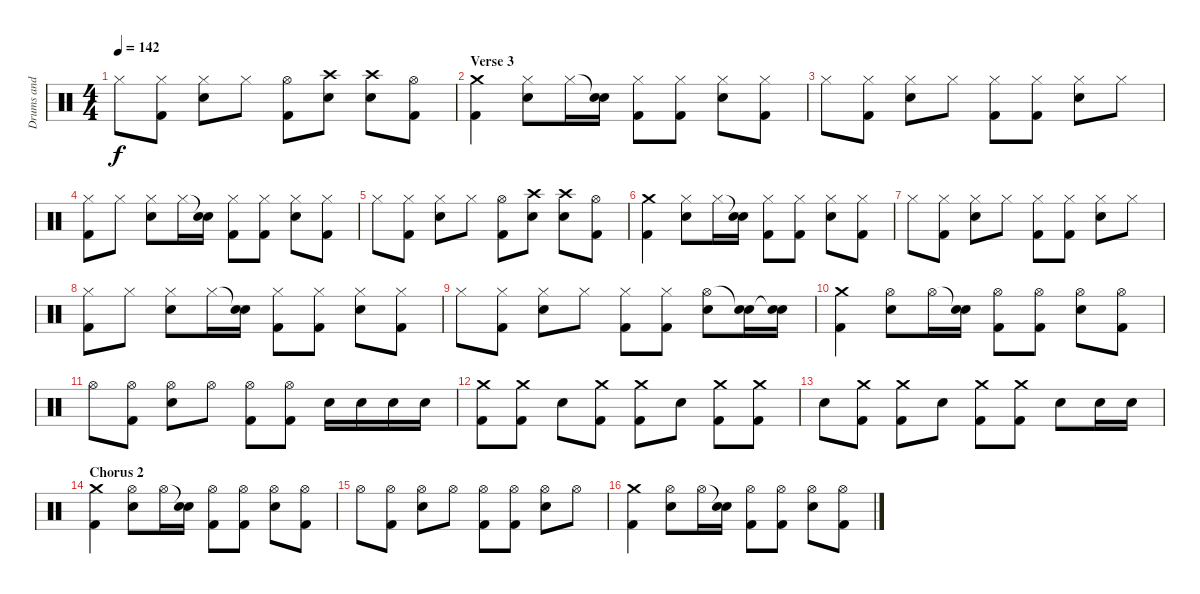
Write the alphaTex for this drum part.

\track ("Drums and Percussion" "Drums and ") {instrument percussion}
\staff {score}
\articulation defaults
\ts (4 4)
\tempo 142
\clef neutral
\ks c "Hi-Hat (closed)".8{dy f}
("Hi-Hat (closed)" "Kick (hit) 2").8 ("Hi-Hat (closed)" "Electric Snare (hit)").8 "Hi-Hat (closed)".8 ("Hi-Hat (open)" "Kick (hit) 2").8 ("Crash high (hit)" "Electric Snare (hit)").8 ("Crash high (hit)" "Electric Snare (hit)").8 ("Hi-Hat (open)" "Kick (hit) 2").8 |
\section ("" "Verse 3")
("Crash medium (hit)" "Kick (hit) 2").4 ("Hi-Hat (closed)" "Electric Snare (hit)").8 "Hi-Hat (closed)".16 ("Snare (hit)"{t} "Electric Snare (hit)").16 ("Hi-Hat (closed)" "Kick (hit) 2").8 ("Hi-Hat (closed)" "Kick (hit) 2").8 ("Hi-Hat (closed)" "Electric Snare (hit)").8 ("Hi-Hat (closed)" "Kick (hit) 2").8 |
"Hi-Hat (closed)".8 ("Hi-Hat (closed)" "Kick (hit) 2").8 ("Hi-Hat (closed)" "Electric Snare (hit)").8 "Hi-Hat (closed)".8 ("Hi-Hat (closed)" "Kick (hit) 2").8 ("Hi-Hat (closed)" "Kick (hit) 2").8 ("Hi-Hat (closed)" "Electric Snare (hit)").8 "Hi-Hat (closed)".8 |
("Hi-Hat (closed)" "Kick (hit) 2").8 "Hi-Hat (closed)".8 ("Hi-Hat (closed)" "Electric Snare (hit)").8 "Hi-Hat (closed)".16 ("Snare (hit)"{t} "Electric Snare (hit)").16 ("Hi-Hat (closed)" "Kick (hit) 2").8 ("Hi-Hat (closed)" "Kick (hit) 2").8 ("Hi-Hat (closed)" "Electric Snare (hit)").8 ("Hi-Hat (closed)" "Kick (hit) 2").8 |
"Hi-Hat (closed)".8 ("Hi-Hat (closed)" "Kick (hit) 2").8 ("Hi-Hat (closed)" "Electric Snare (hit)").8 "Hi-Hat (closed)".8 ("Hi-Hat (open)" "Kick (hit) 2").8 ("Crash high (hit)" "Electric Snare (hit)").8 ("Crash high (hit)" "Electric Snare (hit)").8 ("Hi-Hat (open)" "Kick (hit) 2").8 |
("Crash medium (hit)" "Kick (hit) 2").4 ("Hi-Hat (closed)" "Electric Snare (hit)").8 "Hi-Hat (closed)".16 ("Snare (hit)"{t} "Electric Snare (hit)").16 ("Hi-Hat (closed)" "Kick (hit) 2").8 ("Hi-Hat (closed)" "Kick (hit) 2").8 ("Hi-Hat (closed)" "Electric Snare (hit)").8 ("Hi-Hat (closed)" "Kick (hit) 2").8 |
"Hi-Hat (closed)".8 ("Hi-Hat (closed)" "Kick (hit) 2").8 ("Hi-Hat (closed)" "Electric Snare (hit)").8 "Hi-Hat (closed)".8 ("Hi-Hat (closed)" "Kick (hit) 2").8 ("Hi-Hat (closed)" "Kick (hit) 2").8 ("Hi-Hat (closed)" "Electric Snare (hit)").8 "Hi-Hat (closed)".8 |
("Hi-Hat (closed)" "Kick (hit) 2").8 "Hi-Hat (closed)".8 ("Hi-Hat (closed)" "Electric Snare (hit)").8 "Hi-Hat (closed)".16 ("Snare (hit)"{t} "Electric Snare (hit)").16 ("Hi-Hat (closed)" "Kick (hit) 2").8 ("Hi-Hat (closed)" "Kick (hit) 2").8 ("Hi-Hat (closed)" "Electric Snare (hit)").8 ("Hi-Hat (closed)" "Kick (hit) 2").8 |
"Hi-Hat (closed)".8 ("Hi-Hat (closed)" "Kick (hit) 2").8 ("Hi-Hat (closed)" "Electric Snare (hit)").8 "Hi-Hat (closed)".8 ("Hi-Hat (closed)" "Kick (hit) 2").8 ("Hi-Hat (closed)" "Kick (hit) 2").8 ("Hi-Hat (open)" "Electric Snare (hit)").8 ("Snare (hit)"{t} "Electric Snare (hit)").16 ("Snare (hit)"{t} "Electric Snare (hit)").16 |
("Crash medium (hit)" "Kick (hit) 2").4 ("Hi-Hat (open)" "Electric Snare (hit)").8 "Hi-Hat (open)".16 ("Snare (hit)"{t} "Electric Snare (hit)").16 ("Hi-Hat (open)" "Kick (hit) 2").8 ("Hi-Hat (open)" "Kick (hit) 2").8 ("Hi-Hat (open)" "Electric Snare (hit)").8 ("Hi-Hat (open)" "Kick (hit) 2").8 |
"Hi-Hat (open)".8 ("Hi-Hat (open)" "Kick (hit) 2").8 ("Hi-Hat (open)" "Electric Snare (hit)").8 "Hi-Hat (open)".8 ("Hi-Hat (open)" "Kick (hit) 2").8 ("Hi-Hat (open)" "Kick (hit) 2").8 "Electric Snare (hit)".16 "Electric Snare (hit)".16 "Electric Snare (hit)".16 "Electric Snare (hit)".16 |
("Crash medium (hit)" "Kick (hit) 2").8 ("Crash medium (hit)" "Kick (hit) 2").8 "Electric Snare (hit)".8 ("Crash medium (hit)" "Kick (hit) 2").8 ("Crash medium (hit)" "Kick (hit) 2").8 "Electric Snare (hit)".8 ("Crash medium (hit)" "Kick (hit) 2").8 ("Crash medium (hit)" "Kick (hit) 2").8 |
"Electric Snare (hit)".8 ("Crash medium (hit)" "Kick (hit) 2").8 ("Crash medium (hit)" "Kick (hit) 2").8 "Electric Snare (hit)".8 ("Crash medium (hit)" "Kick (hit) 2").8 ("Crash medium (hit)" "Kick (hit) 2").8 "Electric Snare (hit)".8 "Electric Snare (hit)".16 "Electric Snare (hit)".16 |
\section ("" "Chorus 2")
("Crash medium (hit)" "Kick (hit) 2").4 ("Hi-Hat (open)" "Electric Snare (hit)").8 "Hi-Hat (open)".16 ("Snare (hit)"{t} "Electric Snare (hit)").16 ("Hi-Hat (open)" "Kick (hit) 2").8 ("Hi-Hat (open)" "Kick (hit) 2").8 ("Hi-Hat (open)" "Electric Snare (hit)").8 ("Hi-Hat (open)" "Kick (hit) 2").8 |
"Hi-Hat (open)".8 ("Hi-Hat (open)" "Kick (hit) 2").8 ("Hi-Hat (open)" "Electric Snare (hit)").8 "Hi-Hat (open)".8 ("Hi-Hat (open)" "Kick (hit) 2").8 ("Hi-Hat (open)" "Kick (hit) 2").8 ("Hi-Hat (open)" "Electric Snare (hit)").8 "Hi-Hat (open)".8 |
("Crash medium (hit)" "Kick (hit) 2").4 ("Hi-Hat (open)" "Electric Snare (hit)").8 "Hi-Hat (open)".16 ("Snare (hit)"{t} "Electric Snare (hit)").16 ("Hi-Hat (open)" "Kick (hit) 2").8 ("Hi-Hat (open)" "Kick (hit) 2").8 ("Hi-Hat (open)" "Electric Snare (hit)").8 ("Hi-Hat (open)" "Kick (hit) 2").8
